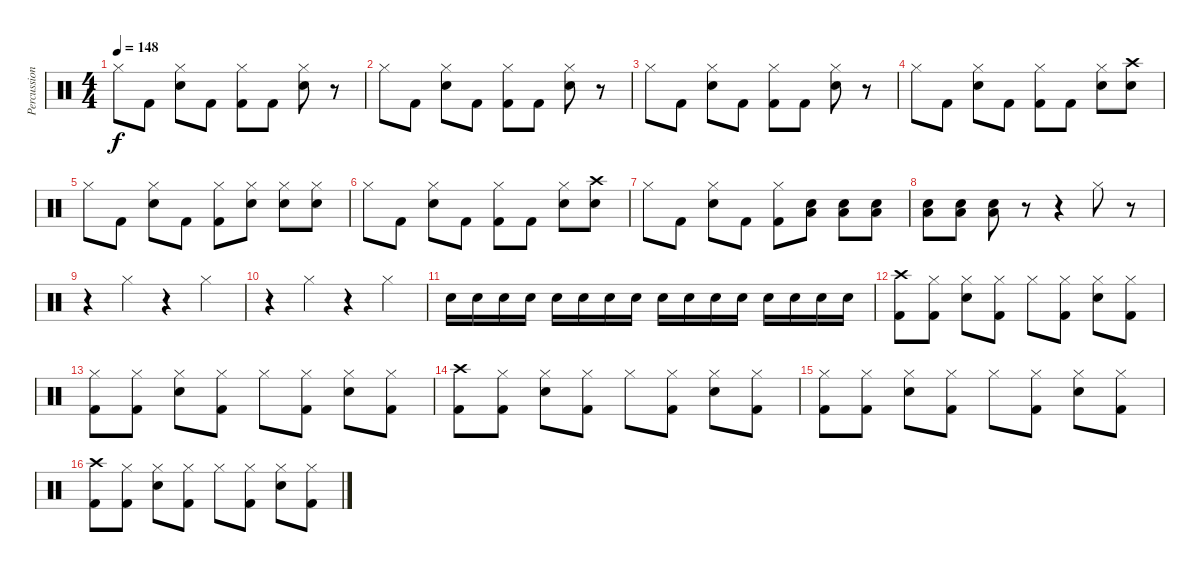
\track ("Percussion" "Percussion") {instrument percussion}
\staff {score}
\articulation defaults
\ts (4 4)
\tempo 148
\clef neutral
\ks c "Hi-Hat (closed)".8{dy f} "Kick (hit) 2".8
("Hi-Hat (closed)" "Electric Snare (hit)").8 "Kick (hit) 2".8 ("Hi-Hat (closed)" "Kick (hit) 2").8 "Kick (hit) 2".8 ("Hi-Hat (closed)" "Electric Snare (hit)").8 r.8 |
"Hi-Hat (closed)".8 "Kick (hit) 2".8 ("Hi-Hat (closed)" "Electric Snare (hit)").8 "Kick (hit) 2".8 ("Hi-Hat (closed)" "Kick (hit) 2").8 "Kick (hit) 2".8 ("Hi-Hat (closed)" "Electric Snare (hit)").8 r.8 |
"Hi-Hat (closed)".8 "Kick (hit) 2".8 ("Hi-Hat (closed)" "Electric Snare (hit)").8 "Kick (hit) 2".8 ("Hi-Hat (closed)" "Kick (hit) 2").8 "Kick (hit) 2".8 ("Hi-Hat (closed)" "Electric Snare (hit)").8 r.8 |
"Hi-Hat (closed)".8 "Kick (hit) 2".8 ("Hi-Hat (closed)" "Electric Snare (hit)").8 "Kick (hit) 2".8 ("Hi-Hat (closed)" "Kick (hit) 2").8 "Kick (hit) 2".8 ("Hi-Hat (closed)" "Electric Snare (hit)").8 ("Crash high (hit)" "Electric Snare (hit)").8 |
"Hi-Hat (closed)".8 "Kick (hit) 2".8 ("Hi-Hat (closed)" "Electric Snare (hit)").8 "Kick (hit) 2".8 ("Hi-Hat (closed)" "Kick (hit) 2").8 ("Hi-Hat (closed)" "Electric Snare (hit)").8 ("Hi-Hat (closed)" "Electric Snare (hit)").8 ("Hi-Hat (closed)" "Electric Snare (hit)").8 |
"Hi-Hat (closed)".8 "Kick (hit) 2".8 ("Hi-Hat (closed)" "Electric Snare (hit)").8 "Kick (hit) 2".8 ("Hi-Hat (closed)" "Kick (hit) 2").8 "Kick (hit) 2".8 ("Hi-Hat (closed)" "Electric Snare (hit)").8 ("Crash high (hit)" "Electric Snare (hit)").8 |
"Hi-Hat (closed)".8 "Kick (hit) 2".8 ("Hi-Hat (closed)" "Electric Snare (hit)").8 "Kick (hit) 2".8 ("Hi-Hat (closed)" "Kick (hit) 2").8 ("Electric Snare (hit)" "Low Tom (hit)").8 ("Electric Snare (hit)" "Low Tom (hit)").8 ("Electric Snare (hit)" "Low Tom (hit)").8 |
("Electric Snare (hit)" "Low Tom (hit)").8 ("Electric Snare (hit)" "Low Tom (hit)").8 ("Electric Snare (hit)" "Low Tom (hit)").8 r.8 r.4 "Hi-Hat (closed)".8 r.8 |
r.4 "Hi-Hat (closed)".4 r.4 "Hi-Hat (closed)".4 |
r.4 "Hi-Hat (closed)".4 r.4 "Hi-Hat (closed)".4 |
"Electric Snare (hit)".16 "Electric Snare (hit)".16 "Electric Snare (hit)".16 "Electric Snare (hit)".16 "Electric Snare (hit)".16 "Electric Snare (hit)".16 "Electric Snare (hit)".16 "Electric Snare (hit)".16 "Electric Snare (hit)".16 "Electric Snare (hit)".16 "Electric Snare (hit)".16 "Electric Snare (hit)".16 "Electric Snare (hit)".16 "Electric Snare (hit)".16 "Electric Snare (hit)".16 "Electric Snare (hit)".16 |
("Crash high (hit)" "Kick (hit) 2").8 ("Hi-Hat (closed)" "Kick (hit) 2").8 ("Hi-Hat (closed)" "Electric Snare (hit)").8 ("Hi-Hat (closed)" "Kick (hit) 2").8 "Hi-Hat (closed)".8 ("Hi-Hat (closed)" "Kick (hit) 2").8 ("Hi-Hat (closed)" "Electric Snare (hit)").8 ("Hi-Hat (closed)" "Kick (hit) 2").8 |
("Hi-Hat (closed)" "Kick (hit) 2").8 ("Hi-Hat (closed)" "Kick (hit) 2").8 ("Hi-Hat (closed)" "Electric Snare (hit)").8 ("Hi-Hat (closed)" "Kick (hit) 2").8 "Hi-Hat (closed)".8 ("Hi-Hat (closed)" "Kick (hit) 2").8 ("Hi-Hat (closed)" "Electric Snare (hit)").8 ("Hi-Hat (closed)" "Kick (hit) 2").8 |
("Crash high (hit)" "Kick (hit) 2").8 ("Hi-Hat (closed)" "Kick (hit) 2").8 ("Hi-Hat (closed)" "Electric Snare (hit)").8 ("Hi-Hat (closed)" "Kick (hit) 2").8 "Hi-Hat (closed)".8 ("Hi-Hat (closed)" "Kick (hit) 2").8 ("Hi-Hat (closed)" "Electric Snare (hit)").8 ("Hi-Hat (closed)" "Kick (hit) 2").8 |
("Hi-Hat (closed)" "Kick (hit) 2").8 ("Hi-Hat (closed)" "Kick (hit) 2").8 ("Hi-Hat (closed)" "Electric Snare (hit)").8 ("Hi-Hat (closed)" "Kick (hit) 2").8 "Hi-Hat (closed)".8 ("Hi-Hat (closed)" "Kick (hit) 2").8 ("Hi-Hat (closed)" "Electric Snare (hit)").8 ("Hi-Hat (closed)" "Kick (hit) 2").8 |
("Crash high (hit)" "Kick (hit) 2").8 ("Hi-Hat (closed)" "Kick (hit) 2").8 ("Hi-Hat (closed)" "Electric Snare (hit)").8 ("Hi-Hat (closed)" "Kick (hit) 2").8 "Hi-Hat (closed)".8 ("Hi-Hat (closed)" "Kick (hit) 2").8 ("Hi-Hat (closed)" "Electric Snare (hit)").8 ("Hi-Hat (closed)" "Kick (hit) 2").8
